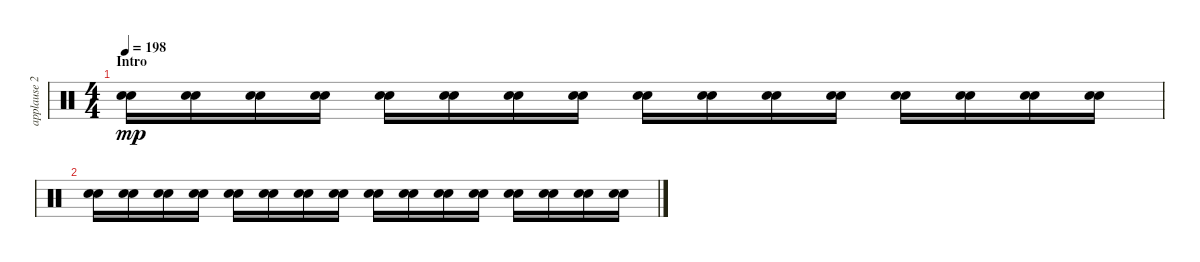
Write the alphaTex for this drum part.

\track ("applause 2" "applause 2") {instrument percussion}
\staff {score}
\articulation defaults
\ts (4 4)
\section ("" "Intro")
\tempo 198
\clef neutral
\ks c
("Hand Clap (hit)" "Hand Clap (hit)").16{dy mp volume 9} ("Hand Clap (hit)" "Hand Clap (hit)").16 ("Hand Clap (hit)" "Hand Clap (hit)").16 ("Hand Clap (hit)" "Hand Clap (hit)").16 ("Hand Clap (hit)" "Hand Clap (hit)").16 ("Hand Clap (hit)" "Hand Clap (hit)").16 ("Hand Clap (hit)" "Hand Clap (hit)").16 ("Hand Clap (hit)" "Hand Clap (hit)").16 ("Hand Clap (hit)" "Hand Clap (hit)").16 ("Hand Clap (hit)" "Hand Clap (hit)").16 ("Hand Clap (hit)" "Hand Clap (hit)").16 ("Hand Clap (hit)" "Hand Clap (hit)").16 ("Hand Clap (hit)" "Hand Clap (hit)").16 ("Hand Clap (hit)" "Hand Clap (hit)").16 ("Hand Clap (hit)" "Hand Clap (hit)").16 ("Hand Clap (hit)" "Hand Clap (hit)").16 |
("Hand Clap (hit)" "Hand Clap (hit)").16 ("Hand Clap (hit)" "Hand Clap (hit)").16 ("Hand Clap (hit)" "Hand Clap (hit)").16 ("Hand Clap (hit)" "Hand Clap (hit)").16 ("Hand Clap (hit)" "Hand Clap (hit)").16 ("Hand Clap (hit)" "Hand Clap (hit)").16 ("Hand Clap (hit)" "Hand Clap (hit)").16 ("Hand Clap (hit)" "Hand Clap (hit)").16 ("Hand Clap (hit)" "Hand Clap (hit)").16 ("Hand Clap (hit)" "Hand Clap (hit)").16 ("Hand Clap (hit)" "Hand Clap (hit)").16 ("Hand Clap (hit)" "Hand Clap (hit)").16 ("Hand Clap (hit)" "Hand Clap (hit)").16 ("Hand Clap (hit)" "Hand Clap (hit)").16 ("Hand Clap (hit)" "Hand Clap (hit)").16 ("Hand Clap (hit)" "Hand Clap (hit)").16
